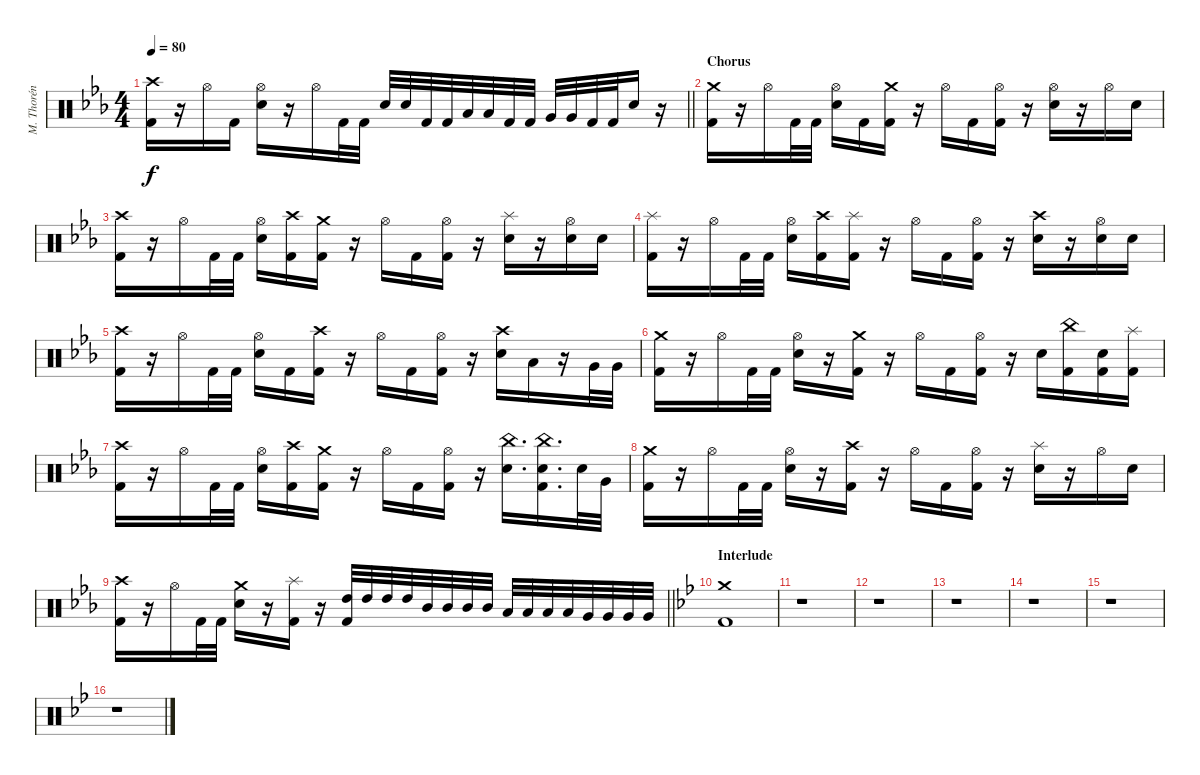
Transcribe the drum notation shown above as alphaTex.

\track ("M. Thorén (Drums)" "M. Thorén ") {instrument percussion}
\staff {score}
\articulation defaults
\ts (4 4)
\tempo 80
\clef neutral
\barLineRight lightlight
\ks eb
("Crash high (hit)" "Kick (hit) 2").16{dy f} r.16 "Hi-Hat (open)".16 "Kick (hit) 2".16 ("Hi-Hat (open)" "Electric Snare (hit)").16 r.16 "Hi-Hat (open)".16 "Kick (hit) 2".32 "Kick (hit) 2".32 "Electric Snare (hit)".32 "Electric Snare (hit)".32 "Kick (hit) 2".32 "Kick (hit) 2".32 "Low Tom (hit)".32 "Low Tom (hit)".32 "Kick (hit) 2".32 "Kick (hit) 2".32 "Very Low Tom (hit)".32 "Very Low Tom (hit)".32 "Kick (hit) 2".32 "Kick (hit) 2".32 "Electric Snare (hit)".16 r.16 |
\section ("" "Chorus")
("Crash medium (hit)" "Kick (hit) 2").16 r.16 "Hi-Hat (open)".16 "Kick (hit) 2".32 "Kick (hit) 2".32 ("Hi-Hat (open)" "Electric Snare (hit)").16 "Kick (hit) 2".16 ("Crash medium (hit)" "Kick (hit) 2").16 r.16 "Hi-Hat (open)".16 "Kick (hit) 2".16 ("Hi-Hat (open)" "Kick (hit) 2").16 r.16 ("Hi-Hat (open)" "Electric Snare (hit)").16 r.16 "Hi-Hat (open)".16 "Electric Snare (hit)".16 |
("Crash high (hit)" "Kick (hit) 2").16 r.16 "Hi-Hat (open)".16 "Kick (hit) 2".32 "Kick (hit) 2".32 ("Hi-Hat (open)" "Electric Snare (hit)").16 ("Crash high (hit)" "Kick (hit) 2").16 ("Crash medium (hit)" "Kick (hit) 2").16 r.16 "Hi-Hat (open)".16 "Kick (hit) 2".16 ("Hi-Hat (open)" "Kick (hit) 2").16 r.16 ("Splash (hit)" "Electric Snare (hit)").16 r.16 ("Hi-Hat (open)" "Electric Snare (hit)").16 "Electric Snare (hit)".16 |
("Splash (hit)" "Kick (hit) 2").16 r.16 "Hi-Hat (open)".16 "Kick (hit) 2".32 "Kick (hit) 2".32 ("Hi-Hat (open)" "Electric Snare (hit)").16 ("Crash high (hit)" "Kick (hit) 2").16 ("Splash (hit)" "Kick (hit) 2").16 r.16 "Hi-Hat (open)".16 "Kick (hit) 2".16 ("Hi-Hat (open)" "Kick (hit) 2").16 r.16 ("Crash high (hit)" "Electric Snare (hit)").16 r.16 ("Hi-Hat (open)" "Electric Snare (hit)").16 "Electric Snare (hit)".16 |
("Crash high (hit)" "Kick (hit) 2").16 r.16 "Hi-Hat (open)".16 "Kick (hit) 2".32 "Kick (hit) 2".32 ("Hi-Hat (open)" "Electric Snare (hit)").16 "Kick (hit) 2".16 ("Crash high (hit)" "Kick (hit) 2").16 r.16 "Hi-Hat (open)".16 "Kick (hit) 2".16 ("Hi-Hat (open)" "Kick (hit) 2").16 r.16 ("Crash high (hit)" "Electric Snare (hit)").16 "Low Tom (hit)".16 r.16 "Very Low Tom (hit)".32 "Very Low Tom (hit)".32 |
("Crash medium (hit)" "Kick (hit) 2").16 r.16 "Hi-Hat (open)".16 "Kick (hit) 2".32 "Kick (hit) 2".32 ("Hi-Hat (open)" "Electric Snare (hit)").16 r.16 ("Crash medium (hit)" "Kick (hit) 2").16 r.16 "Hi-Hat (open)".16 "Kick (hit) 2".16 ("Hi-Hat (open)" "Kick (hit) 2").16 r.16 "Electric Snare (hit)".16 ("China (hit)" "Kick (hit) 2").16 ("Electric Snare (hit)" "Kick (hit) 2").16 ("Splash (hit)" "Kick (hit) 2").16 |
("Crash high (hit)" "Kick (hit) 2").16 r.16 "Hi-Hat (open)".16 "Kick (hit) 2".32 "Kick (hit) 2".32 ("Hi-Hat (open)" "Electric Snare (hit)").16 ("Crash high (hit)" "Kick (hit) 2").16 ("Crash medium (hit)" "Kick (hit) 2").16 r.16 "Hi-Hat (open)".16 "Kick (hit) 2".16 ("Hi-Hat (open)" "Kick (hit) 2").16 r.16 ("China (hit)" "Electric Snare (hit)").16{d} ("China (hit)" "Electric Snare (hit)" "Kick (hit) 2").16{d} "Electric Snare (hit)".32 "Very Low Tom (hit)".32 |
("Crash medium (hit)" "Kick (hit) 2").16 r.16 "Hi-Hat (open)".16 "Kick (hit) 2".32 "Kick (hit) 2".32 ("Hi-Hat (open)" "Electric Snare (hit)").16 r.16 ("Crash high (hit)" "Kick (hit) 2").16 r.16 "Hi-Hat (open)".16 "Kick (hit) 2".16 ("Hi-Hat (open)" "Kick (hit) 2").16 r.16 ("Splash (hit)" "Electric Snare (hit)").16 r.16 "Hi-Hat (open)".16 "Electric Snare (hit)".16 |
\barLineRight lightlight
("Crash high (hit)" "Kick (hit) 2").16 r.16 "Hi-Hat (open)".16 "Kick (hit) 2".32 "Kick (hit) 2".32 ("Crash medium (hit)" "Electric Snare (hit)").16 r.16 ("Splash (hit)" "Kick (hit) 2").16 r.16 ("High Tom (hit)" "Kick (hit) 2").32 "High Tom (hit)".32 "High Tom (hit)".32 "High Tom (hit)".32 "Mid Tom (hit)".32 "Mid Tom (hit)".32 "Mid Tom (hit)".32 "Mid Tom (hit)".32 "Low Tom (hit)".32 "Low Tom (hit)".32 "Low Tom (hit)".32 "Low Tom (hit)".32 "Very Low Tom (hit)".32 "Very Low Tom (hit)".32 "Very Low Tom (hit)".32 "Very Low Tom (hit)".32 |
\section ("" "Interlude")
\ks gminor
("Crash medium (hit)" "Kick (hit) 2").1 |
r.1 |
r.1 |
r.1 |
r.1 |
r.1 |
r.1
